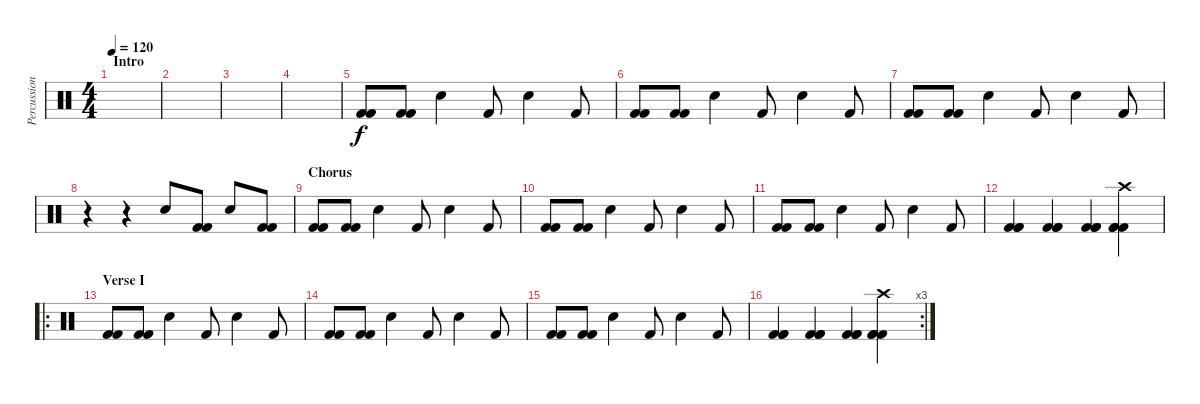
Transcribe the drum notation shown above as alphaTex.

\track ("Percussions" "Percussion") {instrument percussion}
\staff {score}
\articulation defaults
\ts (4 4)
\section ("" "Intro")
\tempo 120
\clef neutral
\ks c
|
|
|
|
("Kick (hit) 2" "Kick (hit) 2").8 ("Kick (hit) 2" "Kick (hit) 2").8 "Snare (hit) 2".4 "Kick (hit) 2".8 "Snare (hit) 2".4 "Kick (hit) 2".8 |
("Kick (hit) 2" "Kick (hit) 2").8 ("Kick (hit) 2" "Kick (hit) 2").8 "Snare (hit) 2".4 "Kick (hit) 2".8 "Snare (hit) 2".4 "Kick (hit) 2".8 |
("Kick (hit) 2" "Kick (hit) 2").8 ("Kick (hit) 2" "Kick (hit) 2").8 "Electric Snare (hit)".4 "Kick (hit) 2".8 "Electric Snare (hit)".4 "Kick (hit) 2".8 |
r.4 r.4 "Electric Snare (hit)".8 ("Kick (hit) 2" "Kick (hit) 2").8 "Electric Snare (hit)".8 ("Kick (hit) 2" "Kick (hit) 2").8 |
\section ("" "Chorus")
("Kick (hit) 2" "Kick (hit) 2").8 ("Kick (hit) 2" "Kick (hit) 2").8 "Electric Snare (hit)".4 "Kick (hit) 2".8 "Electric Snare (hit)".4 "Kick (hit) 2".8 |
("Kick (hit) 2" "Kick (hit) 2").8 ("Kick (hit) 2" "Kick (hit) 2").8 "Electric Snare (hit)".4 "Kick (hit) 2".8 "Electric Snare (hit)".4 "Kick (hit) 2".8 |
("Kick (hit) 2" "Kick (hit) 2").8 ("Kick (hit) 2" "Kick (hit) 2").8 "Electric Snare (hit)".4 "Kick (hit) 2".8 "Electric Snare (hit)".4 "Kick (hit) 2".8 |
("Kick (hit) 2" "Kick (hit) 2" "Kick (hit) 2").4 ("Kick (hit) 2" "Kick (hit) 2" "Kick (hit) 2").4 ("Kick (hit) 2" "Kick (hit) 2" "Kick (hit) 2").4 ("Crash high (hit)" "Kick (hit) 2" "Kick (hit) 2" "Kick (hit) 2").4 |
\ro
\section ("" "Verse I")
("Kick (hit) 2" "Kick (hit) 2").8 ("Kick (hit) 2" "Kick (hit) 2").8 "Electric Snare (hit)".4 "Kick (hit) 2".8 "Electric Snare (hit)".4 "Kick (hit) 2".8 |
("Kick (hit) 2" "Kick (hit) 2").8 ("Kick (hit) 2" "Kick (hit) 2").8 "Electric Snare (hit)".4 "Kick (hit) 2".8 "Electric Snare (hit)".4 "Kick (hit) 2".8 |
("Kick (hit) 2" "Kick (hit) 2").8 ("Kick (hit) 2" "Kick (hit) 2").8 "Electric Snare (hit)".4 "Kick (hit) 2".8 "Electric Snare (hit)".4 "Kick (hit) 2".8 |
\rc 3
("Kick (hit) 2" "Kick (hit) 2" "Kick (hit) 2").4 ("Kick (hit) 2" "Kick (hit) 2" "Kick (hit) 2").4 ("Kick (hit) 2" "Kick (hit) 2" "Kick (hit) 2").4 ("Crash high (hit)" "Kick (hit) 2" "Kick (hit) 2" "Kick (hit) 2").4
